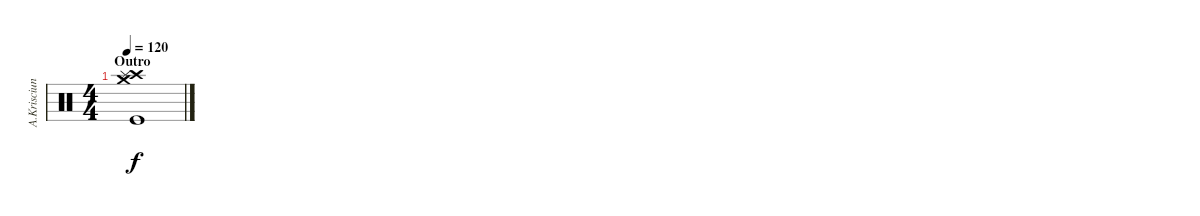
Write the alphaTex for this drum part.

\track ("A.Krisciunas" "A.Krisciun") {instrument percussion}
\staff {score}
\articulation defaults
\ts (4 4)
\section ("" "Outro")
\tempo 120
\clef neutral
\ks c
("Crash high (hit)" "Crash medium (hit)" "Splash (hit)" "Kick (hit)").1{dy f}
